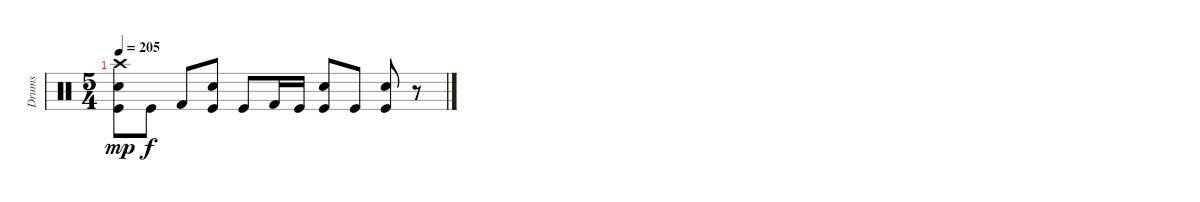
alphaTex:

\track ("Drums" "Drums") {instrument percussion}
\staff {score}
\articulation defaults
\ts (5 4)
\tempo 205
\clef neutral
\ks c
("Crash high (hit)" "Snare (hit) 2" "Kick (hit)").8{dy mp} "Kick (hit)".8{dy f} "Kick (hit) 2".8 ("Snare (hit) 2" "Kick (hit)").8 "Kick (hit)".8 "Kick (hit) 2".16 "Kick (hit)".16 ("Snare (hit) 2" "Kick (hit)").8 "Kick (hit)".8 ("Snare (hit) 2" "Kick (hit)").8 r.8
